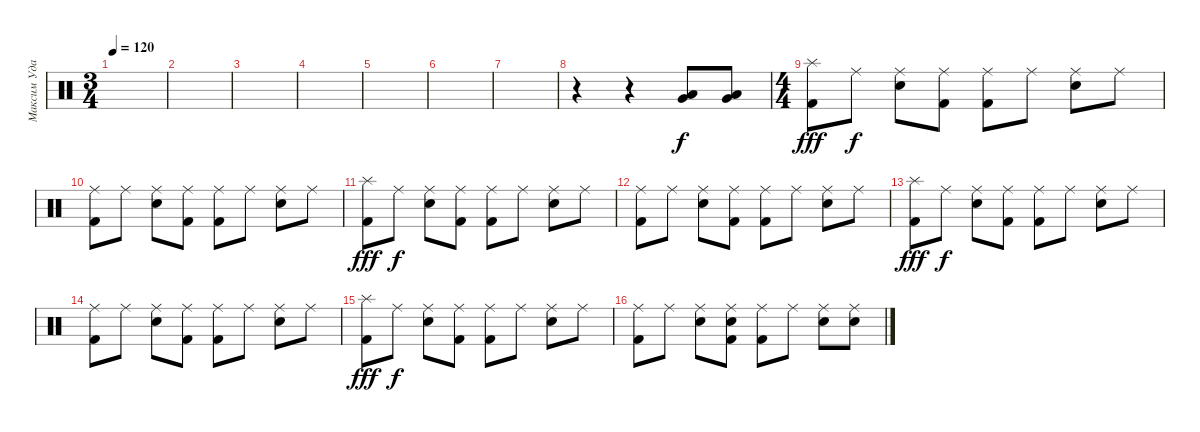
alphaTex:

\track ("Максим Удалов" "Максим Уда") {instrument percussion}
\staff {score}
\articulation defaults
\ts (3 4)
\tempo 120
\clef neutral
\ks c
|
|
|
|
|
|
|
r.4 r.4 ("Low Floor Tom (hit)" "Very Low Tom (hit)").8{dy f} ("Low Floor Tom (hit)" "Very Low Tom (hit)").8 |
\ts (4 4)
("Kick (hit) 2" "Splash (hit)").8{dy fff} "Ride (middle)".8{dy f} ("Ride (middle)" "Electric Snare (hit)").8 ("Kick (hit) 2" "Ride (middle)").8 ("Kick (hit) 2" "Ride (middle)").8 "Ride (middle)".8 ("Ride (middle)" "Electric Snare (hit)").8 "Ride (middle)".8 |
("Kick (hit) 2" "Ride (middle)").8 "Ride (middle)".8 ("Ride (middle)" "Electric Snare (hit)").8 ("Kick (hit) 2" "Ride (middle)").8 ("Kick (hit) 2" "Ride (middle)").8 "Ride (middle)".8 ("Ride (middle)" "Electric Snare (hit)").8 "Ride (middle)".8 |
("Kick (hit) 2" "Splash (hit)").8{dy fff} "Ride (middle)".8{dy f} ("Ride (middle)" "Electric Snare (hit)").8 ("Kick (hit) 2" "Ride (middle)").8 ("Kick (hit) 2" "Ride (middle)").8 "Ride (middle)".8 ("Ride (middle)" "Electric Snare (hit)").8 "Ride (middle)".8 |
("Kick (hit) 2" "Ride (middle)").8 "Ride (middle)".8 ("Ride (middle)" "Electric Snare (hit)").8 ("Kick (hit) 2" "Ride (middle)").8 ("Kick (hit) 2" "Ride (middle)").8 "Ride (middle)".8 ("Ride (middle)" "Electric Snare (hit)").8 "Ride (middle)".8 |
("Kick (hit) 2" "Splash (hit)").8{dy fff} "Ride (middle)".8{dy f} ("Ride (middle)" "Electric Snare (hit)").8 ("Kick (hit) 2" "Ride (middle)").8 ("Kick (hit) 2" "Ride (middle)").8 "Ride (middle)".8 ("Ride (middle)" "Electric Snare (hit)").8 "Ride (middle)".8 |
("Kick (hit) 2" "Ride (middle)").8 "Ride (middle)".8 ("Ride (middle)" "Electric Snare (hit)").8 ("Kick (hit) 2" "Ride (middle)").8 ("Kick (hit) 2" "Ride (middle)").8 "Ride (middle)".8 ("Ride (middle)" "Electric Snare (hit)").8 "Ride (middle)".8 |
("Kick (hit) 2" "Splash (hit)").8{dy fff} "Ride (middle)".8{dy f} ("Ride (middle)" "Electric Snare (hit)").8 ("Kick (hit) 2" "Ride (middle)").8 ("Kick (hit) 2" "Ride (middle)").8 "Ride (middle)".8 ("Ride (middle)" "Electric Snare (hit)").8 "Ride (middle)".8 |
("Kick (hit) 2" "Ride (middle)").8 "Ride (middle)".8 ("Ride (middle)" "Electric Snare (hit)").8 ("Kick (hit) 2" "Ride (middle)" "Electric Snare (hit)").8 ("Kick (hit) 2" "Ride (middle)").8 "Ride (middle)".8 ("Ride (middle)" "Electric Snare (hit)").8 ("Ride (middle)" "Electric Snare (hit)").8
